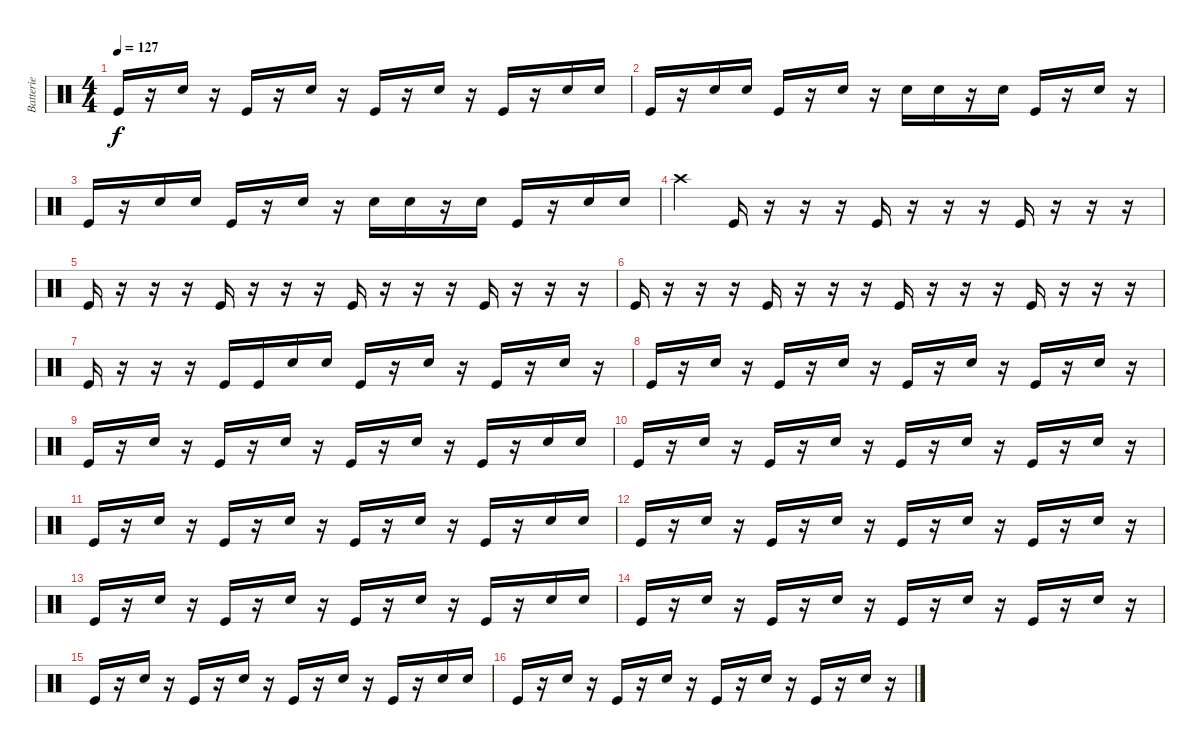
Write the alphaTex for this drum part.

\track ("Batterie" "Batterie") {instrument percussion}
\staff {score}
\articulation defaults
\ts (4 4)
\tempo 127
\clef neutral
\ks c "Kick (hit)".16{dy f}
r.16 "Snare (hit) 2".16 r.16 "Kick (hit)".16 r.16 "Snare (hit) 2".16 r.16 "Kick (hit)".16 r.16 "Snare (hit) 2".16 r.16 "Kick (hit)".16 r.16 "Snare (hit) 2".16 "Snare (hit) 2".16 |
"Kick (hit)".16 r.16 "Snare (hit) 2".16 "Snare (hit) 2".16 "Kick (hit)".16 r.16 "Snare (hit) 2".16 r.16 "Snare (hit) 2".16 "Snare (hit) 2".16 r.16 "Snare (hit) 2".16 "Kick (hit)".16 r.16 "Snare (hit) 2".16 r.16 |
"Kick (hit)".16 r.16 "Snare (hit) 2".16 "Snare (hit) 2".16 "Kick (hit)".16 r.16 "Snare (hit) 2".16 r.16 "Snare (hit) 2".16 "Snare (hit) 2".16 r.16 "Snare (hit) 2".16 "Kick (hit)".16 r.16 "Snare (hit) 2".16 "Snare (hit) 2".16 |
"Crash high (hit)".4 "Kick (hit)".16 r.16 r.16 r.16 "Kick (hit)".16 r.16 r.16 r.16 "Kick (hit)".16 r.16 r.16 r.16 |
"Kick (hit)".16 r.16 r.16 r.16 "Kick (hit)".16 r.16 r.16 r.16 "Kick (hit)".16 r.16 r.16 r.16 "Kick (hit)".16 r.16 r.16 r.16 |
"Kick (hit)".16 r.16 r.16 r.16 "Kick (hit)".16 r.16 r.16 r.16 "Kick (hit)".16 r.16 r.16 r.16 "Kick (hit)".16 r.16 r.16 r.16 |
"Kick (hit)".16 r.16 r.16 r.16 "Kick (hit)".16 "Kick (hit)".16 "Snare (hit) 2".16 "Snare (hit) 2".16 "Kick (hit)".16 r.16 "Snare (hit) 2".16 r.16 "Kick (hit)".16 r.16 "Snare (hit) 2".16 r.16 |
"Kick (hit)".16 r.16 "Snare (hit) 2".16 r.16 "Kick (hit)".16 r.16 "Snare (hit) 2".16 r.16 "Kick (hit)".16 r.16 "Snare (hit) 2".16 r.16 "Kick (hit)".16 r.16 "Snare (hit) 2".16 r.16 |
"Kick (hit)".16 r.16 "Snare (hit) 2".16 r.16 "Kick (hit)".16 r.16 "Snare (hit) 2".16 r.16 "Kick (hit)".16 r.16 "Snare (hit) 2".16 r.16 "Kick (hit)".16 r.16 "Snare (hit) 2".16 "Snare (hit) 2".16 |
"Kick (hit)".16 r.16 "Snare (hit) 2".16 r.16 "Kick (hit)".16 r.16 "Snare (hit) 2".16 r.16 "Kick (hit)".16 r.16 "Snare (hit) 2".16 r.16 "Kick (hit)".16 r.16 "Snare (hit) 2".16 r.16 |
"Kick (hit)".16 r.16 "Snare (hit) 2".16 r.16 "Kick (hit)".16 r.16 "Snare (hit) 2".16 r.16 "Kick (hit)".16 r.16 "Snare (hit) 2".16 r.16 "Kick (hit)".16 r.16 "Snare (hit) 2".16 "Snare (hit) 2".16 |
"Kick (hit)".16 r.16 "Snare (hit) 2".16 r.16 "Kick (hit)".16 r.16 "Snare (hit) 2".16 r.16 "Kick (hit)".16 r.16 "Snare (hit) 2".16 r.16 "Kick (hit)".16 r.16 "Snare (hit) 2".16 r.16 |
"Kick (hit)".16 r.16 "Snare (hit) 2".16 r.16 "Kick (hit)".16 r.16 "Snare (hit) 2".16 r.16 "Kick (hit)".16 r.16 "Snare (hit) 2".16 r.16 "Kick (hit)".16 r.16 "Snare (hit) 2".16 "Snare (hit) 2".16 |
"Kick (hit)".16 r.16 "Snare (hit) 2".16 r.16 "Kick (hit)".16 r.16 "Snare (hit) 2".16 r.16 "Kick (hit)".16 r.16 "Snare (hit) 2".16 r.16 "Kick (hit)".16 r.16 "Snare (hit) 2".16 r.16 |
"Kick (hit)".16 r.16 "Snare (hit) 2".16 r.16 "Kick (hit)".16 r.16 "Snare (hit) 2".16 r.16 "Kick (hit)".16 r.16 "Snare (hit) 2".16 r.16 "Kick (hit)".16 r.16 "Snare (hit) 2".16 "Snare (hit) 2".16 |
"Kick (hit)".16 r.16 "Snare (hit) 2".16 r.16 "Kick (hit)".16 r.16 "Snare (hit) 2".16 r.16 "Kick (hit)".16 r.16 "Snare (hit) 2".16 r.16 "Kick (hit)".16 r.16 "Snare (hit) 2".16 r.16
